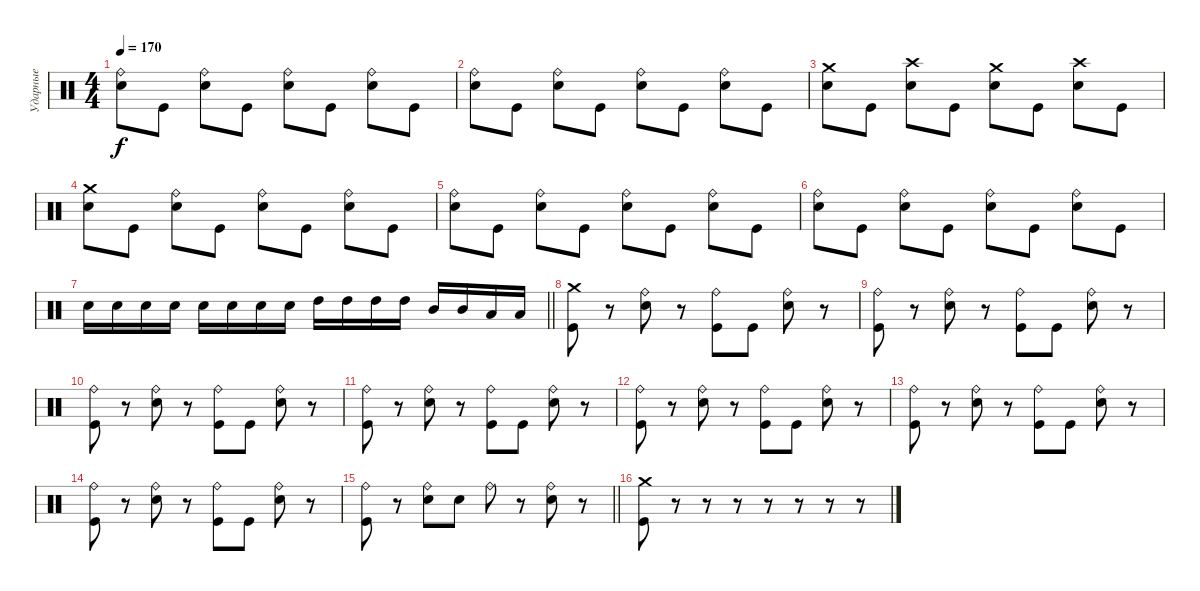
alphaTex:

\track ("Ударные" "Ударные") {instrument percussion}
\staff {score}
\articulation defaults
\ts (4 4)
\tempo 170
\clef neutral
\ks c
("Ride (bell)" "Electric Snare (hit)").8{dy f} "Kick (hit)".8 ("Ride (bell)" "Electric Snare (hit)").8 "Kick (hit)".8 ("Ride (bell)" "Electric Snare (hit)").8 "Kick (hit)".8 ("Ride (bell)" "Electric Snare (hit)").8 "Kick (hit)".8 |
("Ride (bell)" "Electric Snare (hit)").8 "Kick (hit)".8 ("Ride (bell)" "Electric Snare (hit)").8 "Kick (hit)".8 ("Ride (bell)" "Electric Snare (hit)").8 "Kick (hit)".8 ("Ride (bell)" "Electric Snare (hit)").8 "Kick (hit)".8 |
("Crash medium (hit)" "Electric Snare (hit)").8 "Kick (hit)".8 ("Crash high (hit)" "Electric Snare (hit)").8 "Kick (hit)".8 ("Crash medium (hit)" "Electric Snare (hit)").8 "Kick (hit)".8 ("Crash high (hit)" "Electric Snare (hit)").8 "Kick (hit)".8 |
("Crash medium (hit)" "Electric Snare (hit)").8 "Kick (hit)".8 ("Ride (bell)" "Electric Snare (hit)").8 "Kick (hit)".8 ("Ride (bell)" "Electric Snare (hit)").8 "Kick (hit)".8 ("Ride (bell)" "Electric Snare (hit)").8 "Kick (hit)".8 |
("Ride (bell)" "Electric Snare (hit)").8 "Kick (hit)".8 ("Ride (bell)" "Electric Snare (hit)").8 "Kick (hit)".8 ("Ride (bell)" "Electric Snare (hit)").8 "Kick (hit)".8 ("Ride (bell)" "Electric Snare (hit)").8 "Kick (hit)".8 |
("Ride (bell)" "Electric Snare (hit)").8 "Kick (hit)".8 ("Ride (bell)" "Electric Snare (hit)").8 "Kick (hit)".8 ("Ride (bell)" "Electric Snare (hit)").8 "Kick (hit)".8 ("Ride (bell)" "Electric Snare (hit)").8 "Kick (hit)".8 |
\barLineRight lightlight "Electric Snare (hit)".16 "Electric Snare (hit)".16 "Electric Snare (hit)".16 "Electric Snare (hit)".16 "Electric Snare (hit)".16 "Electric Snare (hit)".16 "Electric Snare (hit)".16 "Electric Snare (hit)".16 "High Tom (hit)".16 "High Tom (hit)".16 "High Tom (hit)".16 "High Tom (hit)".16 "Mid Tom (hit)".16 "Mid Tom (hit)".16 "Low Tom (hit)".16 "Low Tom (hit)".16
|
\section ("" " ")
("Crash medium (hit)" "Kick (hit)").8 r.8 ("Ride (bell)" "Electric Snare (hit)").8 r.8 ("Ride (bell)" "Kick (hit)").8 "Kick (hit)".8 ("Ride (bell)" "Electric Snare (hit)").8 r.8 |
("Ride (bell)" "Kick (hit)").8 r.8 ("Ride (bell)" "Electric Snare (hit)").8 r.8 ("Ride (bell)" "Kick (hit)").8 "Kick (hit)".8 ("Ride (bell)" "Electric Snare (hit)").8 r.8 |
("Ride (bell)" "Kick (hit)").8 r.8 ("Ride (bell)" "Electric Snare (hit)").8 r.8 ("Ride (bell)" "Kick (hit)").8 "Kick (hit)".8 ("Ride (bell)" "Electric Snare (hit)").8 r.8 |
("Ride (bell)" "Kick (hit)").8 r.8 ("Ride (bell)" "Electric Snare (hit)").8 r.8 ("Ride (bell)" "Kick (hit)").8 "Kick (hit)".8 ("Ride (bell)" "Electric Snare (hit)").8 r.8 |
("Ride (bell)" "Kick (hit)").8 r.8 ("Ride (bell)" "Electric Snare (hit)").8 r.8 ("Ride (bell)" "Kick (hit)").8 "Kick (hit)".8 ("Ride (bell)" "Electric Snare (hit)").8 r.8 |
("Ride (bell)" "Kick (hit)").8 r.8 ("Ride (bell)" "Electric Snare (hit)").8 r.8 ("Ride (bell)" "Kick (hit)").8 "Kick (hit)".8 ("Ride (bell)" "Electric Snare (hit)").8 r.8 |
("Ride (bell)" "Kick (hit)").8 r.8 ("Ride (bell)" "Electric Snare (hit)").8 r.8 ("Ride (bell)" "Kick (hit)").8 "Kick (hit)".8 ("Ride (bell)" "Electric Snare (hit)").8 r.8 |
\barLineRight lightlight
("Ride (bell)" "Kick (hit)").8 r.8 ("Ride (bell)" "Electric Snare (hit)").8 "Electric Snare (hit)".8 "Ride (bell)".8 r.8 ("Ride (bell)" "Electric Snare (hit)").8 r.8 |
("Crash medium (hit)" "Kick (hit)").8 r.8 r.8 r.8 r.8 r.8 r.8 r.8
